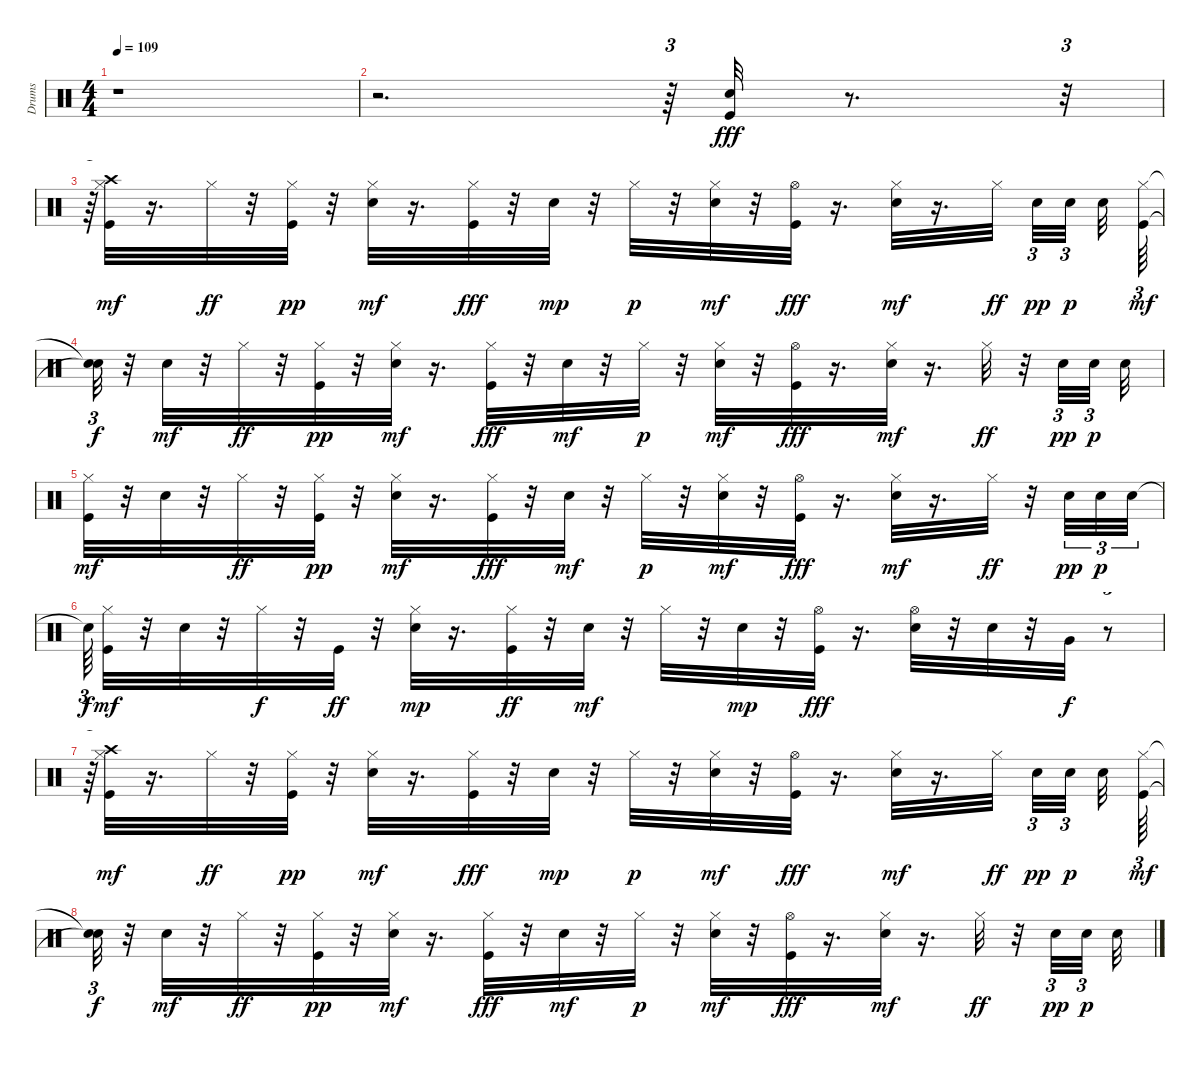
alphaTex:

\track ("Drums" "Drums") {instrument percussion}
\staff {score}
\articulation defaults
\ts (4 4)
\tempo 109
\clef neutral
\ks c
r.1{dy mp} |
r.2{d} r.64{tu (3 2)} ("Kick (hit)" "Snare (hit) 2").32{dy fff} r.8{d} r.32{tu (3 2)} |
r.64{tu (3 2)} ("Kick (hit)" "Crash high (hit)" "Hi-Hat (closed)").32{dy mf} r.16{d} "Hi-Hat (closed)".32{dy ff} r.32 ("Kick (hit)" "Hi-Hat (closed)").32{dy pp} r.32 ("Snare (hit) 2" "Hi-Hat (closed)").32{dy mf} r.16{d} ("Kick (hit)" "Hi-Hat (closed)").32{dy fff} r.32 "Snare (hit) 2".32{dy mp} r.32 "Hi-Hat (closed)".32{dy p} r.32 ("Snare (hit) 2" "Hi-Hat (closed)").32{dy mf} r.32 ("Kick (hit)" "Hi-Hat (open)").32{dy fff} r.16{d} ("Snare (hit) 2" "Hi-Hat (closed)").32{dy mf} r.16{d} "Hi-Hat (closed)".32{dy ff beam splitsecondary} "Snare (hit) 2".32{tu (3 2) dy pp} "Snare (hit) 2".32{tu (3 2) dy p beam splitsecondary} "Snare (hit) 2".32 ("Kick (hit)" "Hi-Hat (closed)").64{tu (3 2) dy mf} |
("Snare (hit)"{t} "Snare (hit)"{t}).32{tu (3 2) dy f} r.32 "Snare (hit) 2".32{dy mf} r.32 "Hi-Hat (closed)".32{dy ff} r.32 ("Kick (hit)" "Hi-Hat (closed)").32{dy pp} r.32 ("Snare (hit) 2" "Hi-Hat (closed)").32{dy mf} r.16{d} ("Kick (hit)" "Hi-Hat (closed)").32{dy fff} r.32 "Snare (hit) 2".32{dy mf} r.32 "Hi-Hat (closed)".32{dy p} r.32 ("Snare (hit) 2" "Hi-Hat (closed)").32{dy mf} r.32 ("Kick (hit)" "Hi-Hat (open)").32{dy fff} r.16{d} ("Snare (hit) 2" "Hi-Hat (closed)").32{dy mf} r.16{d} "Hi-Hat (closed)".32{dy ff} r.32 "Snare (hit) 2".32{tu (3 2) dy pp} "Snare (hit) 2".32{tu (3 2) dy p beam splitsecondary} "Snare (hit) 2".32 |
("Kick (hit)" "Hi-Hat (closed)").32{dy mf} r.32 "Snare (hit) 2".32 r.32 "Hi-Hat (closed)".32{dy ff} r.32 ("Kick (hit)" "Hi-Hat (closed)").32{dy pp} r.32 ("Snare (hit) 2" "Hi-Hat (closed)").32{dy mf} r.16{d} ("Kick (hit)" "Hi-Hat (closed)").32{dy fff} r.32 "Snare (hit) 2".32{dy mf} r.32 "Hi-Hat (closed)".32{dy p} r.32 ("Snare (hit) 2" "Hi-Hat (closed)").32{dy mf} r.32 ("Kick (hit)" "Hi-Hat (open)").32{dy fff} r.16{d} ("Snare (hit) 2" "Hi-Hat (closed)").32{dy mf} r.16{d} "Hi-Hat (closed)".32{dy ff} r.32 "Snare (hit) 2".32{tu (3 2) dy pp} "Snare (hit) 2".32{tu (3 2) dy p} "Snare (hit) 2".32{tu (3 2)} |
"Snare (hit)"{t}.64{tu (3 2) dy f} ("Kick (hit)" "Hi-Hat (closed)").32{dy mf} r.32 "Snare (hit) 2".32 r.32 "Hi-Hat (closed)".32{dy f} r.32 "Kick (hit)".32{dy ff} r.32 ("Snare (hit) 2" "Hi-Hat (closed)").32{dy mp} r.16{d} ("Kick (hit)" "Hi-Hat (closed)").32{dy ff} r.32 "Snare (hit) 2".32{dy mf} r.32 "Hi-Hat (closed)".32 r.32 "Snare (hit) 2".32{dy mp} r.32 ("Kick (hit)" "Hi-Hat (open)").32{dy fff} r.16{d} ("Snare (hit) 2" "Hi-Hat (open)").32 r.32 "Snare (hit) 2".32 r.32 "Very Low Tom (hit)".32{dy f} r.8{tu (3 2)} |
r.64{tu (3 2)} ("Kick (hit)" "Crash high (hit)" "Hi-Hat (closed)").32{dy mf} r.16{d} "Hi-Hat (closed)".32{dy ff} r.32 ("Kick (hit)" "Hi-Hat (closed)").32{dy pp} r.32 ("Snare (hit) 2" "Hi-Hat (closed)").32{dy mf} r.16{d} ("Kick (hit)" "Hi-Hat (closed)").32{dy fff} r.32 "Snare (hit) 2".32{dy mp} r.32 "Hi-Hat (closed)".32{dy p} r.32 ("Snare (hit) 2" "Hi-Hat (closed)").32{dy mf} r.32 ("Kick (hit)" "Hi-Hat (open)").32{dy fff} r.16{d} ("Snare (hit) 2" "Hi-Hat (closed)").32{dy mf} r.16{d} "Hi-Hat (closed)".32{dy ff beam splitsecondary} "Snare (hit) 2".32{tu (3 2) dy pp} "Snare (hit) 2".32{tu (3 2) dy p beam splitsecondary} "Snare (hit) 2".32 ("Kick (hit)" "Hi-Hat (closed)").64{tu (3 2) dy mf} |
("Snare (hit)"{t} "Snare (hit)"{t}).32{tu (3 2) dy f} r.32 "Snare (hit) 2".32{dy mf} r.32 "Hi-Hat (closed)".32{dy ff} r.32 ("Kick (hit)" "Hi-Hat (closed)").32{dy pp} r.32 ("Snare (hit) 2" "Hi-Hat (closed)").32{dy mf} r.16{d} ("Kick (hit)" "Hi-Hat (closed)").32{dy fff} r.32 "Snare (hit) 2".32{dy mf} r.32 "Hi-Hat (closed)".32{dy p} r.32 ("Snare (hit) 2" "Hi-Hat (closed)").32{dy mf} r.32 ("Kick (hit)" "Hi-Hat (open)").32{dy fff} r.16{d} ("Snare (hit) 2" "Hi-Hat (closed)").32{dy mf} r.16{d} "Hi-Hat (closed)".32{dy ff} r.32 "Snare (hit) 2".32{tu (3 2) dy pp} "Snare (hit) 2".32{tu (3 2) dy p beam splitsecondary} "Snare (hit) 2".32
